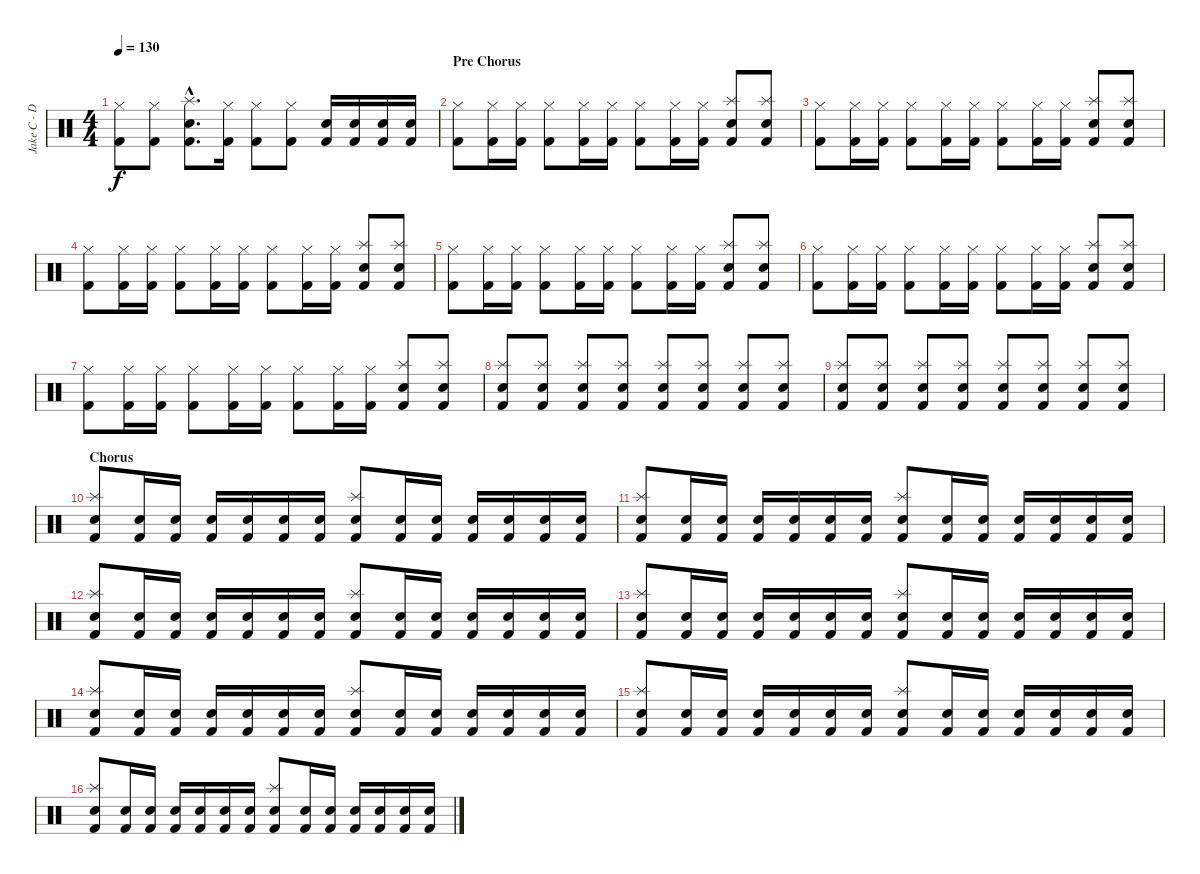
\track ("Jake C - Drums" "Jake C - D") {instrument percussion}
\staff {score}
\articulation defaults
\ts (4 4)
\tempo 130
\clef neutral
\ks c
("Hi-Hat (closed)" "Kick (hit) 2").8{dy f} ("Hi-Hat (closed)" "Kick (hit) 2").8 ("Splash (hit)"{hac} "Electric Snare (hit)"{hac} "Kick (hit) 2"{hac}).8{d} ("Hi-Hat (closed)" "Kick (hit) 2").16 ("Hi-Hat (closed)" "Kick (hit) 2").8 ("Hi-Hat (closed)" "Kick (hit) 2").8 ("Electric Snare (hit)" "Kick (hit) 2").16 ("Electric Snare (hit)" "Kick (hit) 2").16 ("Electric Snare (hit)" "Kick (hit) 2").16 ("Electric Snare (hit)" "Kick (hit) 2").16 |
\section ("" "Pre Chorus")
("Hi-Hat (closed)" "Kick (hit) 2").8 ("Hi-Hat (closed)" "Kick (hit) 2").16 ("Hi-Hat (closed)" "Kick (hit) 2").16 ("Hi-Hat (closed)" "Kick (hit) 2").8 ("Hi-Hat (closed)" "Kick (hit) 2").16 ("Hi-Hat (closed)" "Kick (hit) 2").16 ("Hi-Hat (closed)" "Kick (hit) 2").8 ("Hi-Hat (closed)" "Kick (hit) 2").16 ("Hi-Hat (closed)" "Kick (hit) 2").16 ("Splash (hit)" "Electric Snare (hit)" "Kick (hit) 2").8 ("Splash (hit)" "Electric Snare (hit)" "Kick (hit) 2").8 |
("Hi-Hat (closed)" "Kick (hit) 2").8 ("Hi-Hat (closed)" "Kick (hit) 2").16 ("Hi-Hat (closed)" "Kick (hit) 2").16 ("Hi-Hat (closed)" "Kick (hit) 2").8 ("Hi-Hat (closed)" "Kick (hit) 2").16 ("Hi-Hat (closed)" "Kick (hit) 2").16 ("Hi-Hat (closed)" "Kick (hit) 2").8 ("Hi-Hat (closed)" "Kick (hit) 2").16 ("Hi-Hat (closed)" "Kick (hit) 2").16 ("Splash (hit)" "Electric Snare (hit)" "Kick (hit) 2").8 ("Splash (hit)" "Electric Snare (hit)" "Kick (hit) 2").8 |
("Hi-Hat (closed)" "Kick (hit) 2").8 ("Hi-Hat (closed)" "Kick (hit) 2").16 ("Hi-Hat (closed)" "Kick (hit) 2").16 ("Hi-Hat (closed)" "Kick (hit) 2").8 ("Hi-Hat (closed)" "Kick (hit) 2").16 ("Hi-Hat (closed)" "Kick (hit) 2").16 ("Hi-Hat (closed)" "Kick (hit) 2").8 ("Hi-Hat (closed)" "Kick (hit) 2").16 ("Hi-Hat (closed)" "Kick (hit) 2").16 ("Splash (hit)" "Electric Snare (hit)" "Kick (hit) 2").8 ("Splash (hit)" "Electric Snare (hit)" "Kick (hit) 2").8 |
("Hi-Hat (closed)" "Kick (hit) 2").8 ("Hi-Hat (closed)" "Kick (hit) 2").16 ("Hi-Hat (closed)" "Kick (hit) 2").16 ("Hi-Hat (closed)" "Kick (hit) 2").8 ("Hi-Hat (closed)" "Kick (hit) 2").16 ("Hi-Hat (closed)" "Kick (hit) 2").16 ("Hi-Hat (closed)" "Kick (hit) 2").8 ("Hi-Hat (closed)" "Kick (hit) 2").16 ("Hi-Hat (closed)" "Kick (hit) 2").16 ("Splash (hit)" "Electric Snare (hit)" "Kick (hit) 2").8 ("Splash (hit)" "Electric Snare (hit)" "Kick (hit) 2").8 |
("Hi-Hat (closed)" "Kick (hit) 2").8 ("Hi-Hat (closed)" "Kick (hit) 2").16 ("Hi-Hat (closed)" "Kick (hit) 2").16 ("Hi-Hat (closed)" "Kick (hit) 2").8 ("Hi-Hat (closed)" "Kick (hit) 2").16 ("Hi-Hat (closed)" "Kick (hit) 2").16 ("Hi-Hat (closed)" "Kick (hit) 2").8 ("Hi-Hat (closed)" "Kick (hit) 2").16 ("Hi-Hat (closed)" "Kick (hit) 2").16 ("Splash (hit)" "Electric Snare (hit)" "Kick (hit) 2").8 ("Splash (hit)" "Electric Snare (hit)" "Kick (hit) 2").8 |
("Hi-Hat (closed)" "Kick (hit) 2").8 ("Hi-Hat (closed)" "Kick (hit) 2").16 ("Hi-Hat (closed)" "Kick (hit) 2").16 ("Hi-Hat (closed)" "Kick (hit) 2").8 ("Hi-Hat (closed)" "Kick (hit) 2").16 ("Hi-Hat (closed)" "Kick (hit) 2").16 ("Hi-Hat (closed)" "Kick (hit) 2").8 ("Hi-Hat (closed)" "Kick (hit) 2").16 ("Hi-Hat (closed)" "Kick (hit) 2").16 ("Splash (hit)" "Electric Snare (hit)" "Kick (hit) 2").8 ("Splash (hit)" "Electric Snare (hit)" "Kick (hit) 2").8 |
("Splash (hit)" "Electric Snare (hit)" "Kick (hit) 2").8 ("Splash (hit)" "Electric Snare (hit)" "Kick (hit) 2").8 ("Splash (hit)" "Electric Snare (hit)" "Kick (hit) 2").8 ("Splash (hit)" "Electric Snare (hit)" "Kick (hit) 2").8 ("Splash (hit)" "Electric Snare (hit)" "Kick (hit) 2").8 ("Splash (hit)" "Electric Snare (hit)" "Kick (hit) 2").8 ("Splash (hit)" "Electric Snare (hit)" "Kick (hit) 2").8 ("Splash (hit)" "Electric Snare (hit)" "Kick (hit) 2").8 |
("Splash (hit)" "Electric Snare (hit)" "Kick (hit) 2").8 ("Splash (hit)" "Electric Snare (hit)" "Kick (hit) 2").8 ("Splash (hit)" "Electric Snare (hit)" "Kick (hit) 2").8 ("Splash (hit)" "Electric Snare (hit)" "Kick (hit) 2").8 ("Splash (hit)" "Electric Snare (hit)" "Kick (hit) 2").8 ("Splash (hit)" "Electric Snare (hit)" "Kick (hit) 2").8 ("Splash (hit)" "Electric Snare (hit)" "Kick (hit) 2").8 ("Splash (hit)" "Electric Snare (hit)" "Kick (hit) 2").8 |
\section ("" "Chorus")
("Splash (hit)" "Electric Snare (hit)" "Kick (hit) 2").8 ("Electric Snare (hit)" "Kick (hit) 2").16 ("Electric Snare (hit)" "Kick (hit) 2").16 ("Electric Snare (hit)" "Kick (hit) 2").16 ("Electric Snare (hit)" "Kick (hit) 2").16 ("Electric Snare (hit)" "Kick (hit) 2").16 ("Electric Snare (hit)" "Kick (hit) 2").16 ("Splash (hit)" "Electric Snare (hit)" "Kick (hit) 2").8 ("Electric Snare (hit)" "Kick (hit) 2").16 ("Electric Snare (hit)" "Kick (hit) 2").16 ("Electric Snare (hit)" "Kick (hit) 2").16 ("Electric Snare (hit)" "Kick (hit) 2").16 ("Electric Snare (hit)" "Kick (hit) 2").16 ("Electric Snare (hit)" "Kick (hit) 2").16 |
("Splash (hit)" "Electric Snare (hit)" "Kick (hit) 2").8 ("Electric Snare (hit)" "Kick (hit) 2").16 ("Electric Snare (hit)" "Kick (hit) 2").16 ("Electric Snare (hit)" "Kick (hit) 2").16 ("Electric Snare (hit)" "Kick (hit) 2").16 ("Electric Snare (hit)" "Kick (hit) 2").16 ("Electric Snare (hit)" "Kick (hit) 2").16 ("Splash (hit)" "Electric Snare (hit)" "Kick (hit) 2").8 ("Electric Snare (hit)" "Kick (hit) 2").16 ("Electric Snare (hit)" "Kick (hit) 2").16 ("Electric Snare (hit)" "Kick (hit) 2").16 ("Electric Snare (hit)" "Kick (hit) 2").16 ("Electric Snare (hit)" "Kick (hit) 2").16 ("Electric Snare (hit)" "Kick (hit) 2").16 |
("Splash (hit)" "Electric Snare (hit)" "Kick (hit) 2").8 ("Electric Snare (hit)" "Kick (hit) 2").16 ("Electric Snare (hit)" "Kick (hit) 2").16 ("Electric Snare (hit)" "Kick (hit) 2").16 ("Electric Snare (hit)" "Kick (hit) 2").16 ("Electric Snare (hit)" "Kick (hit) 2").16 ("Electric Snare (hit)" "Kick (hit) 2").16 ("Splash (hit)" "Electric Snare (hit)" "Kick (hit) 2").8 ("Electric Snare (hit)" "Kick (hit) 2").16 ("Electric Snare (hit)" "Kick (hit) 2").16 ("Electric Snare (hit)" "Kick (hit) 2").16 ("Electric Snare (hit)" "Kick (hit) 2").16 ("Electric Snare (hit)" "Kick (hit) 2").16 ("Electric Snare (hit)" "Kick (hit) 2").16 |
("Splash (hit)" "Electric Snare (hit)" "Kick (hit) 2").8 ("Electric Snare (hit)" "Kick (hit) 2").16 ("Electric Snare (hit)" "Kick (hit) 2").16 ("Electric Snare (hit)" "Kick (hit) 2").16 ("Electric Snare (hit)" "Kick (hit) 2").16 ("Electric Snare (hit)" "Kick (hit) 2").16 ("Electric Snare (hit)" "Kick (hit) 2").16 ("Splash (hit)" "Electric Snare (hit)" "Kick (hit) 2").8 ("Electric Snare (hit)" "Kick (hit) 2").16 ("Electric Snare (hit)" "Kick (hit) 2").16 ("Electric Snare (hit)" "Kick (hit) 2").16 ("Electric Snare (hit)" "Kick (hit) 2").16 ("Electric Snare (hit)" "Kick (hit) 2").16 ("Electric Snare (hit)" "Kick (hit) 2").16 |
("Splash (hit)" "Electric Snare (hit)" "Kick (hit) 2").8 ("Electric Snare (hit)" "Kick (hit) 2").16 ("Electric Snare (hit)" "Kick (hit) 2").16 ("Electric Snare (hit)" "Kick (hit) 2").16 ("Electric Snare (hit)" "Kick (hit) 2").16 ("Electric Snare (hit)" "Kick (hit) 2").16 ("Electric Snare (hit)" "Kick (hit) 2").16 ("Splash (hit)" "Electric Snare (hit)" "Kick (hit) 2").8 ("Electric Snare (hit)" "Kick (hit) 2").16 ("Electric Snare (hit)" "Kick (hit) 2").16 ("Electric Snare (hit)" "Kick (hit) 2").16 ("Electric Snare (hit)" "Kick (hit) 2").16 ("Electric Snare (hit)" "Kick (hit) 2").16 ("Electric Snare (hit)" "Kick (hit) 2").16 |
("Splash (hit)" "Electric Snare (hit)" "Kick (hit) 2").8 ("Electric Snare (hit)" "Kick (hit) 2").16 ("Electric Snare (hit)" "Kick (hit) 2").16 ("Electric Snare (hit)" "Kick (hit) 2").16 ("Electric Snare (hit)" "Kick (hit) 2").16 ("Electric Snare (hit)" "Kick (hit) 2").16 ("Electric Snare (hit)" "Kick (hit) 2").16 ("Splash (hit)" "Electric Snare (hit)" "Kick (hit) 2").8 ("Electric Snare (hit)" "Kick (hit) 2").16 ("Electric Snare (hit)" "Kick (hit) 2").16 ("Electric Snare (hit)" "Kick (hit) 2").16 ("Electric Snare (hit)" "Kick (hit) 2").16 ("Electric Snare (hit)" "Kick (hit) 2").16 ("Electric Snare (hit)" "Kick (hit) 2").16 |
("Splash (hit)" "Electric Snare (hit)" "Kick (hit) 2").8 ("Electric Snare (hit)" "Kick (hit) 2").16 ("Electric Snare (hit)" "Kick (hit) 2").16 ("Electric Snare (hit)" "Kick (hit) 2").16 ("Electric Snare (hit)" "Kick (hit) 2").16 ("Electric Snare (hit)" "Kick (hit) 2").16 ("Electric Snare (hit)" "Kick (hit) 2").16 ("Splash (hit)" "Electric Snare (hit)" "Kick (hit) 2").8 ("Electric Snare (hit)" "Kick (hit) 2").16 ("Electric Snare (hit)" "Kick (hit) 2").16 ("Electric Snare (hit)" "Kick (hit) 2").16 ("Electric Snare (hit)" "Kick (hit) 2").16 ("Electric Snare (hit)" "Kick (hit) 2").16 ("Electric Snare (hit)" "Kick (hit) 2").16
